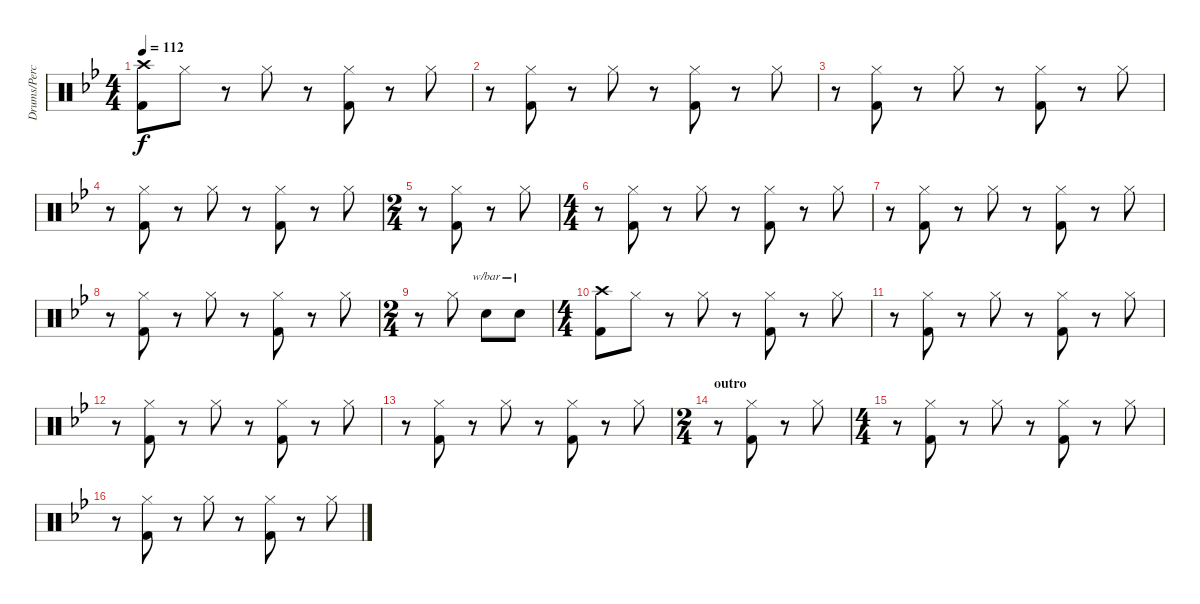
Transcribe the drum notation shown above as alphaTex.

\track ("Drums/Percussion (Bengerg)" "Drums/Perc") {instrument percussion}
\staff {score}
\articulation defaults
\ts (4 4)
\tempo 112
\clef neutral
\ks bb
("Crash high (hit)" "Kick (hit) 2").8{dy f balance 8} "Hi-Hat (closed)".8 r.8 "Hi-Hat (closed)".8 r.8 ("Hi-Hat (closed)" "Kick (hit) 2").8 r.8 "Hi-Hat (closed)".8 |
r.8 ("Hi-Hat (closed)" "Kick (hit) 2").8 r.8 "Hi-Hat (closed)".8 r.8 ("Hi-Hat (closed)" "Kick (hit) 2").8 r.8 "Hi-Hat (closed)".8 |
r.8 ("Hi-Hat (closed)" "Kick (hit) 2").8 r.8 "Hi-Hat (closed)".8 r.8 ("Hi-Hat (closed)" "Kick (hit) 2").8 r.8 "Hi-Hat (closed)".8 |
r.8 ("Hi-Hat (closed)" "Kick (hit) 2").8 r.8 "Hi-Hat (closed)".8 r.8 ("Hi-Hat (closed)" "Kick (hit) 2").8 r.8 "Hi-Hat (closed)".8 |
\ts (2 4)
r.8 ("Hi-Hat (closed)" "Kick (hit) 2").8 r.8 "Hi-Hat (closed)".8 |
\ts (4 4)
r.8 ("Hi-Hat (closed)" "Kick (hit) 2").8 r.8 "Hi-Hat (closed)".8 r.8 ("Hi-Hat (closed)" "Kick (hit) 2").8 r.8 "Hi-Hat (closed)".8 |
r.8 ("Hi-Hat (closed)" "Kick (hit) 2").8 r.8 "Hi-Hat (closed)".8 r.8 ("Hi-Hat (closed)" "Kick (hit) 2").8 r.8 "Hi-Hat (closed)".8 |
r.8 ("Hi-Hat (closed)" "Kick (hit) 2").8 r.8 "Hi-Hat (closed)".8 r.8 ("Hi-Hat (closed)" "Kick (hit) 2").8 r.8 "Hi-Hat (closed)".8 |
\ts (2 4)
r.8 "Hi-Hat (closed)".8 "Electric Snare (hit)".8{tbe (custom default 0 12 45 12 60 0) balance 16} "Electric Snare (hit)".8{tbe (custom default 0 12 45 12 60 0) balance 0} |
\ts (4 4)
("Crash high (hit)" "Kick (hit) 2").8{balance 8} "Hi-Hat (closed)".8 r.8 "Hi-Hat (closed)".8 r.8 ("Hi-Hat (closed)" "Kick (hit) 2").8 r.8 "Hi-Hat (closed)".8 |
r.8 ("Hi-Hat (closed)" "Kick (hit) 2").8 r.8 "Hi-Hat (closed)".8 r.8 ("Hi-Hat (closed)" "Kick (hit) 2").8 r.8 "Hi-Hat (closed)".8 |
r.8 ("Hi-Hat (closed)" "Kick (hit) 2").8 r.8 "Hi-Hat (closed)".8 r.8 ("Hi-Hat (closed)" "Kick (hit) 2").8 r.8 "Hi-Hat (closed)".8 |
r.8 ("Hi-Hat (closed)" "Kick (hit) 2").8 r.8 "Hi-Hat (closed)".8 r.8 ("Hi-Hat (closed)" "Kick (hit) 2").8 r.8 "Hi-Hat (closed)".8 |
\ts (2 4)
\section ("" "outro")
r.8 ("Hi-Hat (closed)" "Kick (hit) 2").8 r.8 "Hi-Hat (closed)".8 |
\ts (4 4)
r.8 ("Hi-Hat (closed)" "Kick (hit) 2").8 r.8 "Hi-Hat (closed)".8 r.8 ("Hi-Hat (closed)" "Kick (hit) 2").8 r.8 "Hi-Hat (closed)".8 |
r.8 ("Hi-Hat (closed)" "Kick (hit) 2").8 r.8 "Hi-Hat (closed)".8 r.8 ("Hi-Hat (closed)" "Kick (hit) 2").8 r.8 "Hi-Hat (closed)".8
